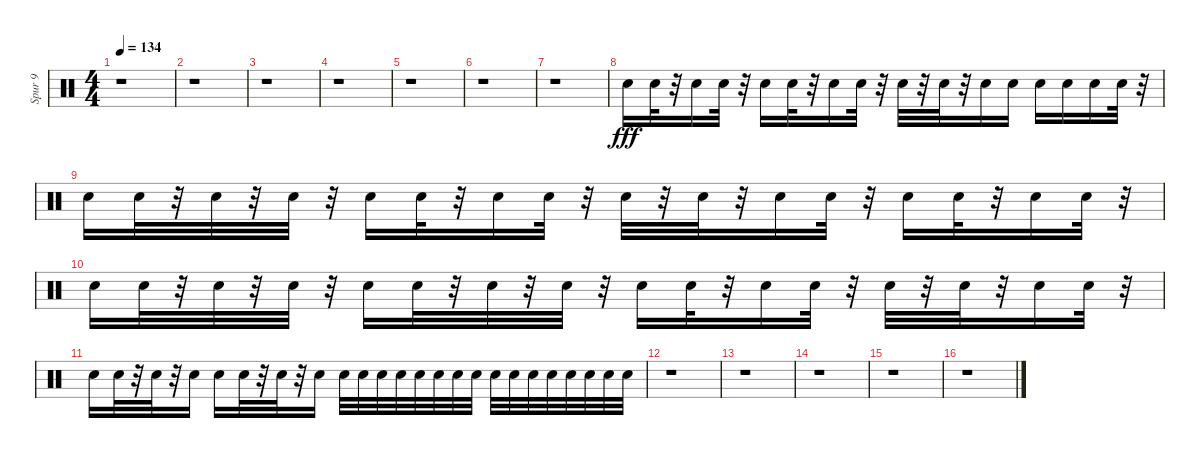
\track ("Spur 9" "Spur 9") {instrument percussion}
\staff {score}
\articulation defaults
\ts (4 4)
\tempo 134
\clef neutral
\ks c
r.1{dy fff} |
r.1 |
r.1 |
r.1 |
r.1 |
r.1 |
r.1 |
"Electric Snare (hit)".16 "Electric Snare (hit)".32 r.32 "Electric Snare (hit)".16 "Electric Snare (hit)".32 r.32 "Electric Snare (hit)".16 "Electric Snare (hit)".32 r.32 "Electric Snare (hit)".16 "Electric Snare (hit)".32 r.32 "Electric Snare (hit)".32 r.32 "Electric Snare (hit)".32 r.32 "Electric Snare (hit)".16 "Electric Snare (hit)".16 "Electric Snare (hit)".16 "Electric Snare (hit)".16 "Electric Snare (hit)".16 "Electric Snare (hit)".32 r.32 |
"Electric Snare (hit)".16 "Electric Snare (hit)".32 r.32 "Electric Snare (hit)".32 r.32 "Electric Snare (hit)".32 r.32 "Electric Snare (hit)".16 "Electric Snare (hit)".32 r.32 "Electric Snare (hit)".16 "Electric Snare (hit)".32 r.32 "Electric Snare (hit)".32 r.32 "Electric Snare (hit)".32 r.32 "Electric Snare (hit)".16 "Electric Snare (hit)".32 r.32 "Electric Snare (hit)".16 "Electric Snare (hit)".32 r.32 "Electric Snare (hit)".16 "Electric Snare (hit)".32 r.32 |
"Electric Snare (hit)".16 "Electric Snare (hit)".32 r.32 "Electric Snare (hit)".32 r.32 "Electric Snare (hit)".32 r.32 "Electric Snare (hit)".16 "Electric Snare (hit)".32 r.32 "Electric Snare (hit)".32 r.32 "Electric Snare (hit)".32 r.32 "Electric Snare (hit)".16 "Electric Snare (hit)".32 r.32 "Electric Snare (hit)".16 "Electric Snare (hit)".32 r.32 "Electric Snare (hit)".32 r.32 "Electric Snare (hit)".32 r.32 "Electric Snare (hit)".16 "Electric Snare (hit)".32 r.32 |
"Electric Snare (hit)".16 "Electric Snare (hit)".32 r.32 "Electric Snare (hit)".32 r.32 "Electric Snare (hit)".16 "Electric Snare (hit)".16 "Electric Snare (hit)".32 r.32 "Electric Snare (hit)".32 r.32 "Electric Snare (hit)".16 "Electric Snare (hit)".32 "Electric Snare (hit)".32 "Electric Snare (hit)".32 "Electric Snare (hit)".32 "Electric Snare (hit)".32 "Electric Snare (hit)".32 "Electric Snare (hit)".32 "Electric Snare (hit)".32 "Electric Snare (hit)".32 "Electric Snare (hit)".32 "Electric Snare (hit)".32 "Electric Snare (hit)".32 "Electric Snare (hit)".32 "Electric Snare (hit)".32 "Electric Snare (hit)".32 "Electric Snare (hit)".32 |
r.1 |
r.1 |
r.1 |
r.1 |
r.1
